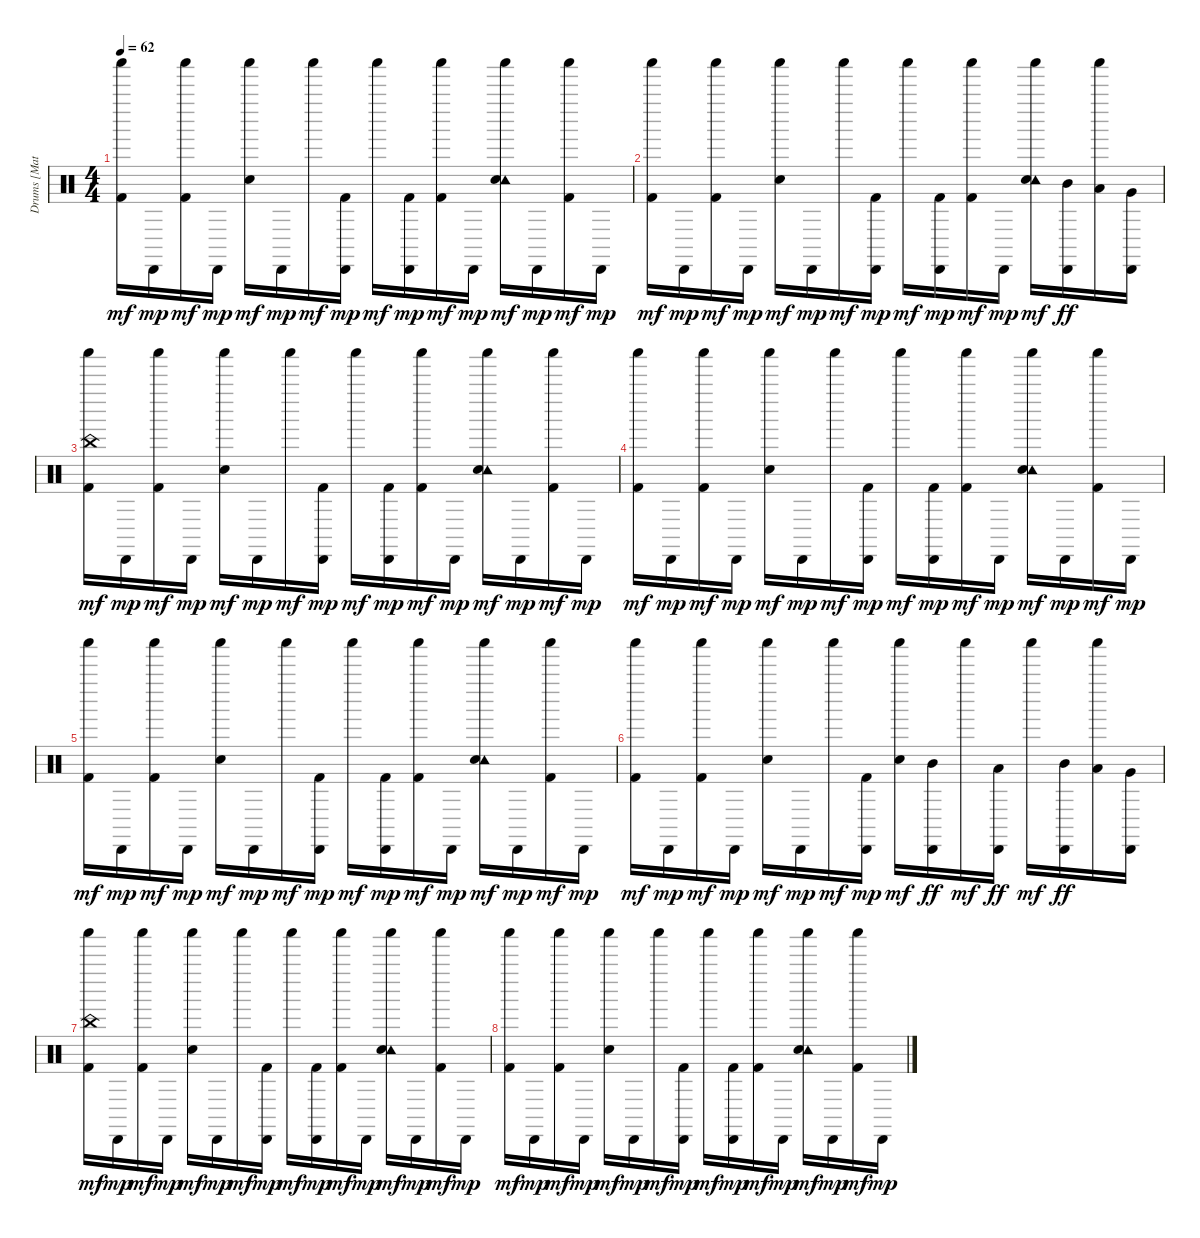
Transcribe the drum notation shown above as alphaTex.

\track ("Drums [Matt]" "Drums [Mat") {instrument percussion}
\staff {score}
\articulation defaults
\ts (4 4)
\tempo 62
\clef neutral
\ks c
("Shaker (hit)" "Kick (hit) 2").16{dy mf} "Cabasa (hit)".16{dy mp} ("Shaker (hit)" "Kick (hit) 2").16{dy mf} "Cabasa (hit)".16{dy mp} ("Shaker (hit)" "Snare (hit) 2").16{dy mf} "Cabasa (hit)".16{dy mp} "Shaker (hit)".16{dy mf} ("Cabasa (hit)" "Kick (hit) 2").16{dy mp} "Shaker (hit)".16{dy mf} ("Cabasa (hit)" "Kick (hit) 2").16{dy mp} ("Shaker (hit)" "Kick (hit) 2").16{dy mf} "Cabasa (hit)".16{dy mp} ("Tambourine (hit)" "Shaker (hit)" "Snare (hit) 2").16{dy mf} "Cabasa (hit)".16{dy mp} ("Shaker (hit)" "Kick (hit) 2").16{dy mf} "Cabasa (hit)".16{dy mp} |
("Shaker (hit)" "Kick (hit) 2").16{dy mf} "Cabasa (hit)".16{dy mp} ("Shaker (hit)" "Kick (hit) 2").16{dy mf} "Cabasa (hit)".16{dy mp} ("Shaker (hit)" "Snare (hit) 2").16{dy mf} "Cabasa (hit)".16{dy mp} "Shaker (hit)".16{dy mf} ("Cabasa (hit)" "Kick (hit) 2").16{dy mp} "Shaker (hit)".16{dy mf} ("Cabasa (hit)" "Kick (hit) 2").16{dy mp} ("Shaker (hit)" "Kick (hit) 2").16{dy mf} "Cabasa (hit)".16{dy mp} ("Tambourine (hit)" "Shaker (hit)" "Snare (hit) 2").16{dy mf} ("Cabasa (hit)" "Mid Tom (hit)").16{dy ff} ("Shaker (hit)" "Low Tom (hit)").16 ("Cabasa (hit)" "Very Low Tom (hit)").16 |
("China (hit)" "Shaker (hit)" "Kick (hit) 2").16{dy mf} "Cabasa (hit)".16{dy mp} ("Shaker (hit)" "Kick (hit) 2").16{dy mf} "Cabasa (hit)".16{dy mp} ("Shaker (hit)" "Snare (hit) 2").16{dy mf} "Cabasa (hit)".16{dy mp} "Shaker (hit)".16{dy mf} ("Cabasa (hit)" "Kick (hit) 2").16{dy mp} "Shaker (hit)".16{dy mf} ("Cabasa (hit)" "Kick (hit) 2").16{dy mp} ("Shaker (hit)" "Kick (hit) 2").16{dy mf} "Cabasa (hit)".16{dy mp} ("Tambourine (hit)" "Shaker (hit)" "Snare (hit) 2").16{dy mf} "Cabasa (hit)".16{dy mp} ("Shaker (hit)" "Kick (hit) 2").16{dy mf} "Cabasa (hit)".16{dy mp} |
("Shaker (hit)" "Kick (hit) 2").16{dy mf} "Cabasa (hit)".16{dy mp} ("Shaker (hit)" "Kick (hit) 2").16{dy mf} "Cabasa (hit)".16{dy mp} ("Shaker (hit)" "Snare (hit) 2").16{dy mf} "Cabasa (hit)".16{dy mp} "Shaker (hit)".16{dy mf} ("Cabasa (hit)" "Kick (hit) 2").16{dy mp} "Shaker (hit)".16{dy mf} ("Cabasa (hit)" "Kick (hit) 2").16{dy mp} ("Shaker (hit)" "Kick (hit) 2").16{dy mf} "Cabasa (hit)".16{dy mp} ("Tambourine (hit)" "Shaker (hit)" "Snare (hit) 2").16{dy mf} "Cabasa (hit)".16{dy mp} ("Shaker (hit)" "Kick (hit) 2").16{dy mf} "Cabasa (hit)".16{dy mp} |
("Shaker (hit)" "Kick (hit) 2").16{dy mf} "Cabasa (hit)".16{dy mp} ("Shaker (hit)" "Kick (hit) 2").16{dy mf} "Cabasa (hit)".16{dy mp} ("Shaker (hit)" "Snare (hit) 2").16{dy mf} "Cabasa (hit)".16{dy mp} "Shaker (hit)".16{dy mf} ("Cabasa (hit)" "Kick (hit) 2").16{dy mp} "Shaker (hit)".16{dy mf} ("Cabasa (hit)" "Kick (hit) 2").16{dy mp} ("Shaker (hit)" "Kick (hit) 2").16{dy mf} "Cabasa (hit)".16{dy mp} ("Tambourine (hit)" "Shaker (hit)" "Snare (hit) 2").16{dy mf} "Cabasa (hit)".16{dy mp} ("Shaker (hit)" "Kick (hit) 2").16{dy mf} "Cabasa (hit)".16{dy mp} |
("Shaker (hit)" "Kick (hit) 2").16{dy mf} "Cabasa (hit)".16{dy mp} ("Shaker (hit)" "Kick (hit) 2").16{dy mf} "Cabasa (hit)".16{dy mp} ("Shaker (hit)" "Snare (hit) 2").16{dy mf} "Cabasa (hit)".16{dy mp} "Shaker (hit)".16{dy mf} ("Cabasa (hit)" "Kick (hit) 2").16{dy mp} ("Shaker (hit)" "Snare (hit) 2").16{dy mf} ("Cabasa (hit)" "Mid Tom (hit)").16{dy ff} "Shaker (hit)".16{dy mf} ("Cabasa (hit)" "Low Tom (hit)").16{dy ff} "Shaker (hit)".16{dy mf} ("Cabasa (hit)" "Mid Tom (hit)").16{dy ff} ("Shaker (hit)" "Low Tom (hit)").16 ("Cabasa (hit)" "Very Low Tom (hit)").16 |
("China (hit)" "Shaker (hit)" "Kick (hit) 2").16{dy mf} "Cabasa (hit)".16{dy mp} ("Shaker (hit)" "Kick (hit) 2").16{dy mf} "Cabasa (hit)".16{dy mp} ("Shaker (hit)" "Snare (hit) 2").16{dy mf} "Cabasa (hit)".16{dy mp} "Shaker (hit)".16{dy mf} ("Cabasa (hit)" "Kick (hit) 2").16{dy mp} "Shaker (hit)".16{dy mf} ("Cabasa (hit)" "Kick (hit) 2").16{dy mp} ("Shaker (hit)" "Kick (hit) 2").16{dy mf} "Cabasa (hit)".16{dy mp} ("Tambourine (hit)" "Shaker (hit)" "Snare (hit) 2").16{dy mf} "Cabasa (hit)".16{dy mp} ("Shaker (hit)" "Kick (hit) 2").16{dy mf} "Cabasa (hit)".16{dy mp} |
("Shaker (hit)" "Kick (hit) 2").16{dy mf} "Cabasa (hit)".16{dy mp} ("Shaker (hit)" "Kick (hit) 2").16{dy mf} "Cabasa (hit)".16{dy mp} ("Shaker (hit)" "Snare (hit) 2").16{dy mf} "Cabasa (hit)".16{dy mp} "Shaker (hit)".16{dy mf} ("Cabasa (hit)" "Kick (hit) 2").16{dy mp} "Shaker (hit)".16{dy mf} ("Cabasa (hit)" "Kick (hit) 2").16{dy mp} ("Shaker (hit)" "Kick (hit) 2").16{dy mf} "Cabasa (hit)".16{dy mp} ("Tambourine (hit)" "Shaker (hit)" "Snare (hit) 2").16{dy mf} "Cabasa (hit)".16{dy mp} ("Shaker (hit)" "Kick (hit) 2").16{dy mf} "Cabasa (hit)".16{dy mp}
